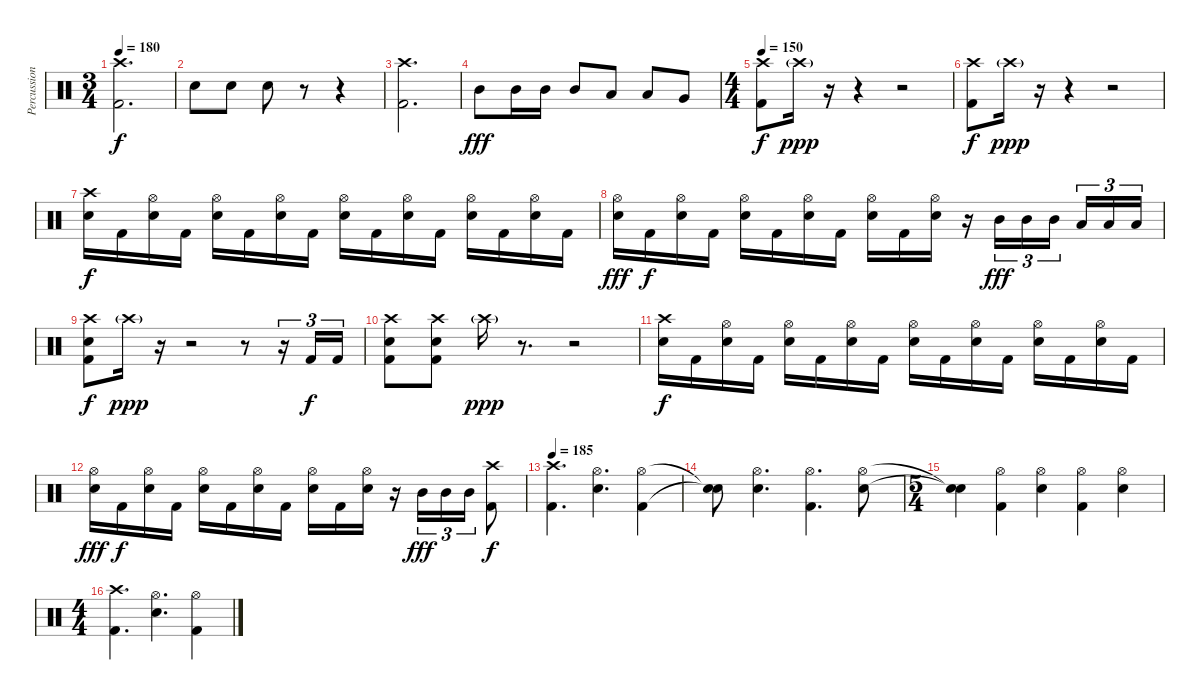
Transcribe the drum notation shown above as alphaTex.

\track ("Percussion" "Percussion") {instrument percussion}
\staff {score}
\articulation defaults
\ts (3 4)
\tempo 180
\clef neutral
\ks c
("Crash high (hit)" "Kick (hit) 2").2{d dy f} |
"Snare (hit) 2".8 "Snare (hit) 2".8 "Snare (hit) 2".8 r.8 r.4 |
("Crash high (hit)" "Kick (hit) 2").2{d} |
"Mid Tom (hit)".8{dy fff} "Mid Tom (hit)".16 "Mid Tom (hit)".16 "Mid Tom (hit)".8 "Low Tom (hit)".8 "Low Tom (hit)".8 "Very Low Tom (hit)".8 |
\ts (4 4)
\tempo 150
("Crash high (hit)" "Kick (hit) 2").8{dy f} "Crash high (hit)"{g}.16{dy ppp} r.16 r.4 r.2 |
("Crash high (hit)" "Kick (hit) 2").8{dy f} "Crash high (hit)"{g}.16{dy ppp} r.16 r.4 r.2 |
("Crash high (hit)" "Snare (hit) 2").16{dy f} "Kick (hit) 2".16 ("Hi-Hat (open)" "Snare (hit) 2").16 "Kick (hit) 2".16 ("Hi-Hat (open)" "Snare (hit) 2").16 "Kick (hit) 2".16 ("Hi-Hat (open)" "Snare (hit) 2").16 "Kick (hit) 2".16 ("Hi-Hat (open)" "Snare (hit) 2").16 "Kick (hit) 2".16 ("Hi-Hat (open)" "Snare (hit) 2").16 "Kick (hit) 2".16 ("Hi-Hat (open)" "Snare (hit) 2").16 "Kick (hit) 2".16 ("Hi-Hat (open)" "Snare (hit) 2").16 "Kick (hit) 2".16 |
("Hi-Hat (open)" "Snare (hit) 2").16{dy fff} "Kick (hit) 2".16{dy f} ("Hi-Hat (open)" "Snare (hit) 2").16 "Kick (hit) 2".16 ("Hi-Hat (open)" "Snare (hit) 2").16 "Kick (hit) 2".16 ("Hi-Hat (open)" "Snare (hit) 2").16 "Kick (hit) 2".16 ("Hi-Hat (open)" "Snare (hit) 2").16 "Kick (hit) 2".16 ("Hi-Hat (open)" "Snare (hit) 2").16 r.16 "Mid Tom (hit)".16{tu (3 2) dy fff} "Mid Tom (hit)".16{tu (3 2)} "Mid Tom (hit)".16{tu (3 2) beam splitsecondary} "Low Tom (hit)".16{tu (3 2)} "Low Tom (hit)".16{tu (3 2)} "Low Tom (hit)".16{tu (3 2)} |
("Crash high (hit)" "Snare (hit) 2" "Kick (hit) 2").8{dy f} "Crash high (hit)"{g}.16{dy ppp} r.16 r.2 r.8 r.16{tu (3 2)} "Kick (hit) 2".16{tu (3 2) dy f} "Kick (hit) 2".16{tu (3 2)} |
("Crash high (hit)" "Snare (hit) 2" "Kick (hit) 2").8 ("Crash high (hit)" "Snare (hit) 2" "Kick (hit) 2").8 "Crash high (hit)"{g}.16{dy ppp} r.8{d} r.2 |
("Crash high (hit)" "Snare (hit) 2").16{dy f} "Kick (hit) 2".16 ("Hi-Hat (open)" "Snare (hit) 2").16 "Kick (hit) 2".16 ("Hi-Hat (open)" "Snare (hit) 2").16 "Kick (hit) 2".16 ("Hi-Hat (open)" "Snare (hit) 2").16 "Kick (hit) 2".16 ("Hi-Hat (open)" "Snare (hit) 2").16 "Kick (hit) 2".16 ("Hi-Hat (open)" "Snare (hit) 2").16 "Kick (hit) 2".16 ("Hi-Hat (open)" "Snare (hit) 2").16 "Kick (hit) 2".16 ("Hi-Hat (open)" "Snare (hit) 2").16 "Kick (hit) 2".16 |
("Hi-Hat (open)" "Snare (hit) 2").16{dy fff} "Kick (hit) 2".16{dy f} ("Hi-Hat (open)" "Snare (hit) 2").16 "Kick (hit) 2".16 ("Hi-Hat (open)" "Snare (hit) 2").16 "Kick (hit) 2".16 ("Hi-Hat (open)" "Snare (hit) 2").16 "Kick (hit) 2".16 ("Hi-Hat (open)" "Snare (hit) 2").16 "Kick (hit) 2".16 ("Hi-Hat (open)" "Snare (hit) 2").16 r.16 "Mid Tom (hit)".16{tu (3 2) dy fff} "Mid Tom (hit)".16{tu (3 2)} "Mid Tom (hit)".16{tu (3 2)} ("Crash high (hit)" "Kick (hit) 2").8{dy f} |
\tempo 185
("Crash high (hit)" "Kick (hit) 2").4{d} ("Hi-Hat (open)" "Snare (hit) 2").4{d} ("Hi-Hat (open)" "Kick (hit) 2").4 |
("Snare (hit)"{t} "Snare (hit)"{t}).8 ("Hi-Hat (open)" "Snare (hit) 2").4{d} ("Hi-Hat (open)" "Kick (hit) 2").4{d} ("Hi-Hat (open)" "Snare (hit) 2").8 |
\ts (5 4)
("Snare (hit)"{t} "Snare (hit)"{t}).4 ("Hi-Hat (open)" "Kick (hit) 2").4 ("Hi-Hat (open)" "Snare (hit) 2").4 ("Hi-Hat (open)" "Kick (hit) 2").4 ("Hi-Hat (open)" "Snare (hit) 2").4 |
\ts (4 4)
("Crash high (hit)" "Kick (hit) 2").4{d} ("Hi-Hat (open)" "Snare (hit) 2").4{d} ("Hi-Hat (open)" "Kick (hit) 2").4
